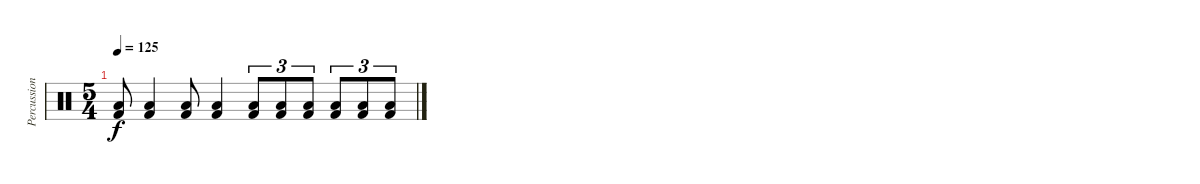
\track ("Percussion" "Percussion") {instrument percussion}
\staff {score}
\articulation defaults
\ts (5 4)
\tempo 125
\clef neutral
\ks c
("Low Floor Tom (hit)" "Kick (hit) 2").8{dy f} ("Low Floor Tom (hit)" "Kick (hit) 2").4 ("Low Floor Tom (hit)" "Kick (hit) 2").8 ("Low Floor Tom (hit)" "Kick (hit) 2").4 ("Low Floor Tom (hit)" "Kick (hit) 2").8{tu (3 2)} ("Low Floor Tom (hit)" "Kick (hit) 2").8{tu (3 2)} ("Low Floor Tom (hit)" "Kick (hit) 2").8{tu (3 2)} ("Low Floor Tom (hit)" "Kick (hit) 2").8{tu (3 2)} ("Low Floor Tom (hit)" "Kick (hit) 2").8{tu (3 2)} ("Low Floor Tom (hit)" "Kick (hit) 2").8{tu (3 2)}
